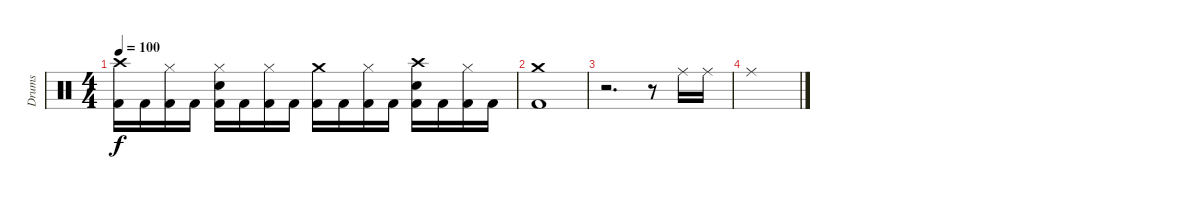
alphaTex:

\track ("Drums" "Drums") {instrument percussion}
\staff {score}
\articulation defaults
\ts (4 4)
\tempo 100
\clef neutral
\ks c
("Crash high (hit)" "Kick (hit) 2").16{dy f} "Kick (hit) 2".16 ("Hi-Hat (closed)" "Kick (hit) 2").16 "Kick (hit) 2".16 ("Hi-Hat (closed)" "Snare (hit) 2" "Kick (hit) 2").16 "Kick (hit) 2".16 ("Hi-Hat (closed)" "Kick (hit) 2").16 "Kick (hit) 2".16 ("Crash medium (hit)" "Kick (hit) 2").16 "Kick (hit) 2".16 ("Hi-Hat (closed)" "Kick (hit) 2").16 "Kick (hit) 2".16 ("Crash high (hit)" "Snare (hit) 2" "Kick (hit) 2").16 "Kick (hit) 2".16 ("Hi-Hat (closed)" "Kick (hit) 2").16 "Kick (hit) 2".16 |
("Crash medium (hit)" "Kick (hit) 2").1 |
r.2{d} r.8 "Ride (middle)".16 "Ride (middle)".16 |
"Ride (middle)".1
